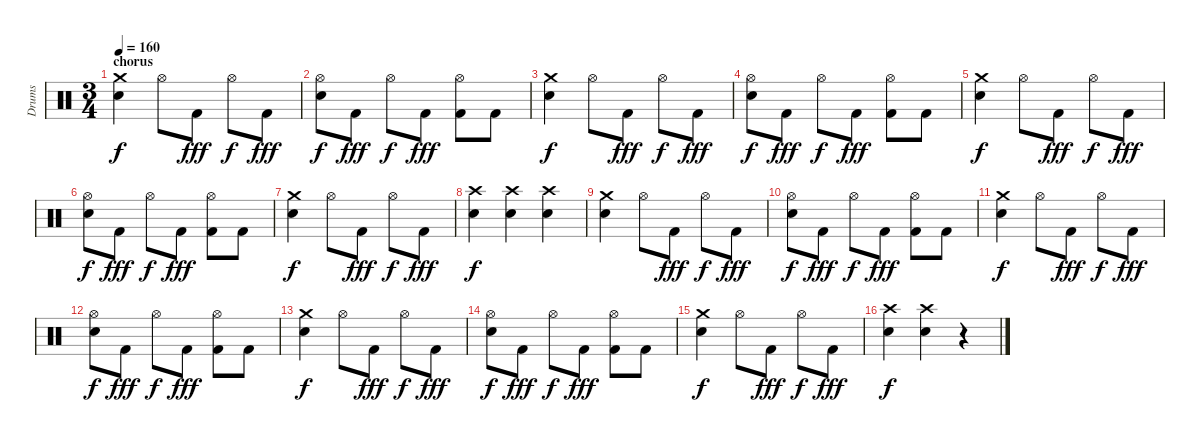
\track ("Drums" "Drums") {instrument percussion}
\staff {score}
\articulation defaults
\ts (3 4)
\section ("" "chorus")
\tempo 160
\clef neutral
\ks c
("Crash medium (hit)" "Electric Snare (hit)").4{dy f} "Hi-Hat (open)".8 "Kick (hit) 2".8{dy fff} "Hi-Hat (open)".8{dy f} "Kick (hit) 2".8{dy fff} |
("Hi-Hat (open)" "Electric Snare (hit)").8{dy f} "Kick (hit) 2".8{dy fff} "Hi-Hat (open)".8{dy f} "Kick (hit) 2".8{dy fff} ("Hi-Hat (open)" "Kick (hit) 2").8 "Kick (hit) 2".8 |
("Crash medium (hit)" "Electric Snare (hit)").4{dy f} "Hi-Hat (open)".8 "Kick (hit) 2".8{dy fff} "Hi-Hat (open)".8{dy f} "Kick (hit) 2".8{dy fff} |
("Hi-Hat (open)" "Electric Snare (hit)").8{dy f} "Kick (hit) 2".8{dy fff} "Hi-Hat (open)".8{dy f} "Kick (hit) 2".8{dy fff} ("Hi-Hat (open)" "Kick (hit) 2").8 "Kick (hit) 2".8 |
("Crash medium (hit)" "Electric Snare (hit)").4{dy f} "Hi-Hat (open)".8 "Kick (hit) 2".8{dy fff} "Hi-Hat (open)".8{dy f} "Kick (hit) 2".8{dy fff} |
("Hi-Hat (open)" "Electric Snare (hit)").8{dy f} "Kick (hit) 2".8{dy fff} "Hi-Hat (open)".8{dy f} "Kick (hit) 2".8{dy fff} ("Hi-Hat (open)" "Kick (hit) 2").8 "Kick (hit) 2".8 |
("Crash medium (hit)" "Electric Snare (hit)").4{dy f} "Hi-Hat (open)".8 "Kick (hit) 2".8{dy fff} "Hi-Hat (open)".8{dy f} "Kick (hit) 2".8{dy fff} |
("Crash high (hit)" "Electric Snare (hit)").4{dy f} ("Crash high (hit)" "Electric Snare (hit)").4 ("Crash high (hit)" "Electric Snare (hit)").4 |
("Crash medium (hit)" "Electric Snare (hit)").4 "Hi-Hat (open)".8 "Kick (hit) 2".8{dy fff} "Hi-Hat (open)".8{dy f} "Kick (hit) 2".8{dy fff} |
("Hi-Hat (open)" "Electric Snare (hit)").8{dy f} "Kick (hit) 2".8{dy fff} "Hi-Hat (open)".8{dy f} "Kick (hit) 2".8{dy fff} ("Hi-Hat (open)" "Kick (hit) 2").8 "Kick (hit) 2".8 |
("Crash medium (hit)" "Electric Snare (hit)").4{dy f} "Hi-Hat (open)".8 "Kick (hit) 2".8{dy fff} "Hi-Hat (open)".8{dy f} "Kick (hit) 2".8{dy fff} |
("Hi-Hat (open)" "Electric Snare (hit)").8{dy f} "Kick (hit) 2".8{dy fff} "Hi-Hat (open)".8{dy f} "Kick (hit) 2".8{dy fff} ("Hi-Hat (open)" "Kick (hit) 2").8 "Kick (hit) 2".8 |
("Crash medium (hit)" "Electric Snare (hit)").4{dy f} "Hi-Hat (open)".8 "Kick (hit) 2".8{dy fff} "Hi-Hat (open)".8{dy f} "Kick (hit) 2".8{dy fff} |
("Hi-Hat (open)" "Electric Snare (hit)").8{dy f} "Kick (hit) 2".8{dy fff} "Hi-Hat (open)".8{dy f} "Kick (hit) 2".8{dy fff} ("Hi-Hat (open)" "Kick (hit) 2").8 "Kick (hit) 2".8 |
("Crash medium (hit)" "Electric Snare (hit)").4{dy f} "Hi-Hat (open)".8 "Kick (hit) 2".8{dy fff} "Hi-Hat (open)".8{dy f} "Kick (hit) 2".8{dy fff} |
("Crash high (hit)" "Electric Snare (hit)").4{dy f} ("Crash high (hit)" "Electric Snare (hit)").4 r.4
